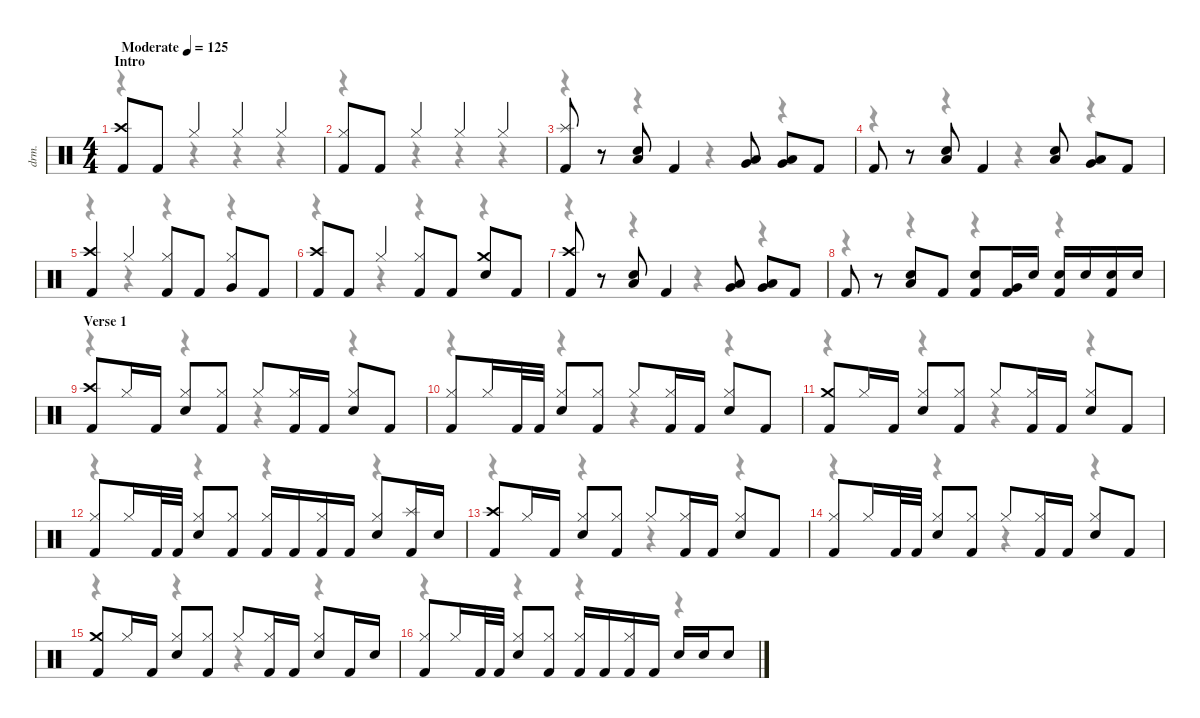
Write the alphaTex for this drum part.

\defaultSystemsLayout 4
\hideDynamics
\bracketExtendMode nobrackets
\otherSystemsTrackNameOrientation horizontal
\track ("Drums" "drm.") {instrument percussion}
\staff {score}
\articulation defaults
\voice
\ts (4 4)
\beaming (8 2 2 2 2)
\section ("" "Intro")
\tempo (125 "Moderate")
\clef neutral
\ks c
("Crash high (hit)" "Kick (hit) 2").8{dy f} "Kick (hit) 2".8 "Hi-Hat (closed)".4 "Hi-Hat (closed)".4 "Hi-Hat (closed)".4 |
("Hi-Hat (closed)" "Kick (hit) 2").8 "Kick (hit) 2".8 "Hi-Hat (closed)".4 "Hi-Hat (closed)".4 "Hi-Hat (closed)".4 |
("Splash (hit)" "Kick (hit) 2").8 r.8 ("Low Floor Tom (hit)" "Snare (hit) 2").8 "Kick (hit) 2".4 ("Low Floor Tom (hit)" "Very Low Tom (hit)").8 ("Low Floor Tom (hit)" "Very Low Tom (hit)").8 "Kick (hit) 2".8 |
"Kick (hit) 2".8 r.8 ("Low Floor Tom (hit)" "Snare (hit) 2").8 "Kick (hit) 2".4 ("Low Floor Tom (hit)" "Snare (hit) 2").8 ("Low Floor Tom (hit)" "Very Low Tom (hit)").8 "Kick (hit) 2".8 |
("Crash high (hit)" "Kick (hit) 2").4 "Hi-Hat (closed)".4 ("Hi-Hat (closed)" "Kick (hit) 2").8 "Kick (hit) 2".8 ("Hi-Hat (closed)" "Very Low Tom (hit)").8 "Kick (hit) 2".8{dy fff} |
("Crash high (hit)" "Kick (hit) 2").8{dy f} "Kick (hit) 2".8 "Hi-Hat (closed)".4 ("Hi-Hat (closed)" "Kick (hit) 2").8 "Kick (hit) 2".8{dy fff} ("Crash medium (hit)" "Snare (hit) 2").8{dy f} "Kick (hit) 2".8 |
("Crash high (hit)" "Kick (hit) 2").8 r.8 ("Low Floor Tom (hit)" "Snare (hit) 2").8 "Kick (hit) 2".4 ("Low Floor Tom (hit)" "Very Low Tom (hit)").8 ("Low Floor Tom (hit)" "Very Low Tom (hit)").8 "Kick (hit) 2".8 |
"Kick (hit) 2".8 r.8 ("Low Floor Tom (hit)" "Snare (hit) 2").8 "Kick (hit) 2".8 ("Snare (hit) 2" "Kick (hit) 2").8 ("Very Low Tom (hit)" "Kick (hit) 2").16 "Snare (hit) 2".16 ("Snare (hit) 2" "Kick (hit) 2").16 "Snare (hit) 2".16 ("Snare (hit) 2" "Kick (hit) 2").16 "Snare (hit) 2".16 |
\section ("" "Verse 1")
("Crash high (hit)" "Kick (hit) 2").8 "Hi-Hat (closed)".16 "Kick (hit) 2".16{dy fff} ("Hi-Hat (closed)" "Snare (hit) 2").8{dy f} ("Hi-Hat (closed)" "Kick (hit) 2").8 "Hi-Hat (closed)".8 ("Hi-Hat (closed)" "Kick (hit) 2").16 "Kick (hit) 2".16{dy fff} ("Hi-Hat (closed)" "Snare (hit) 2").8{dy f} "Kick (hit) 2".8{dy fff} |
("Hi-Hat (closed)" "Kick (hit) 2").8{dy f} "Hi-Hat (closed)".16 "Kick (hit) 2".32{dy fff} "Kick (hit) 2".32 ("Hi-Hat (closed)" "Snare (hit) 2").8{dy f} ("Hi-Hat (closed)" "Kick (hit) 2").8 "Hi-Hat (closed)".8 ("Hi-Hat (closed)" "Kick (hit) 2").16 "Kick (hit) 2".16{dy fff} ("Hi-Hat (closed)" "Snare (hit) 2").8{dy f} "Kick (hit) 2".8{dy fff} |
("Crash medium (hit)" "Kick (hit) 2").8{dy f} "Hi-Hat (closed)".16 "Kick (hit) 2".16{dy fff} ("Hi-Hat (closed)" "Snare (hit) 2").8{dy f} ("Hi-Hat (closed)" "Kick (hit) 2").8 "Hi-Hat (closed)".8 ("Hi-Hat (closed)" "Kick (hit) 2").16 "Kick (hit) 2".16{dy fff} ("Hi-Hat (closed)" "Snare (hit) 2").8{dy f} "Kick (hit) 2".8{dy fff} |
("Hi-Hat (closed)" "Kick (hit) 2").8{dy f} "Hi-Hat (closed)".16 "Kick (hit) 2".32{dy fff} "Kick (hit) 2".32 ("Hi-Hat (closed)" "Snare (hit) 2").8{dy f} ("Hi-Hat (closed)" "Kick (hit) 2").8 ("Hi-Hat (closed)" "Kick (hit) 2").16 "Kick (hit) 2".16 ("Hi-Hat (closed)" "Kick (hit) 2").16 "Kick (hit) 2".16{dy fff} ("Hi-Hat (closed)" "Snare (hit) 2").8{dy f} ("Splash (hit)" "Kick (hit) 2").16 "Snare (hit) 2".16 |
("Crash high (hit)" "Kick (hit) 2").8 "Hi-Hat (closed)".16 "Kick (hit) 2".16{dy fff} ("Hi-Hat (closed)" "Snare (hit) 2").8{dy f} ("Hi-Hat (closed)" "Kick (hit) 2").8 "Hi-Hat (closed)".8 ("Hi-Hat (closed)" "Kick (hit) 2").16 "Kick (hit) 2".16{dy fff} ("Hi-Hat (closed)" "Snare (hit) 2").8{dy f} "Kick (hit) 2".8{dy fff} |
("Hi-Hat (closed)" "Kick (hit) 2").8{dy f} "Hi-Hat (closed)".16 "Kick (hit) 2".32{dy fff} "Kick (hit) 2".32 ("Hi-Hat (closed)" "Snare (hit) 2").8{dy f} ("Hi-Hat (closed)" "Kick (hit) 2").8 "Hi-Hat (closed)".8 ("Hi-Hat (closed)" "Kick (hit) 2").16 "Kick (hit) 2".16{dy fff} ("Hi-Hat (closed)" "Snare (hit) 2").8{dy f} "Kick (hit) 2".8{dy fff} |
("Crash medium (hit)" "Kick (hit) 2").8{dy f} "Hi-Hat (closed)".16 "Kick (hit) 2".16{dy fff} ("Hi-Hat (closed)" "Snare (hit) 2").8{dy f} ("Hi-Hat (closed)" "Kick (hit) 2").8 "Hi-Hat (closed)".8 ("Hi-Hat (closed)" "Kick (hit) 2").16 "Kick (hit) 2".16{dy fff} ("Hi-Hat (closed)" "Snare (hit) 2").8{dy f} "Kick (hit) 2".16{dy fff} "Snare (hit) 2".16{dy f} |
("Hi-Hat (closed)" "Kick (hit) 2").8 "Hi-Hat (closed)".16 "Kick (hit) 2".32{dy fff} "Kick (hit) 2".32 ("Hi-Hat (closed)" "Snare (hit) 2").8{dy f} ("Hi-Hat (closed)" "Kick (hit) 2").8 ("Hi-Hat (closed)" "Kick (hit) 2").16 "Kick (hit) 2".16 ("Hi-Hat (closed)" "Kick (hit) 2").16 "Kick (hit) 2".16{dy fff} "Snare (hit) 2".16 "Snare (hit) 2".16 "Snare (hit) 2".8
\voice
\clef neutral
\ottava regular
\simile none
\ks c
r.4{dy mf} r.4 r.4 r.4 |
r.4 r.4 r.4 r.4 |
r.4 r.4 r.4 r.4 |
r.4 r.4 r.4 r.4 |
r.4 r.4 r.4 r.4 |
r.4 r.4 r.4 r.4 |
r.4 r.4 r.4 r.4 |
r.4 r.4 r.4 r.4 |
r.4 r.4 r.4 r.4 |
r.4 r.4 r.4 r.4 |
r.4 r.4 r.4 r.4 |
r.4 r.4 r.4 r.4 |
r.4 r.4 r.4 r.4 |
r.4 r.4 r.4 r.4 |
r.4 r.4 r.4 r.4 |
r.4 r.4 r.4 r.4
